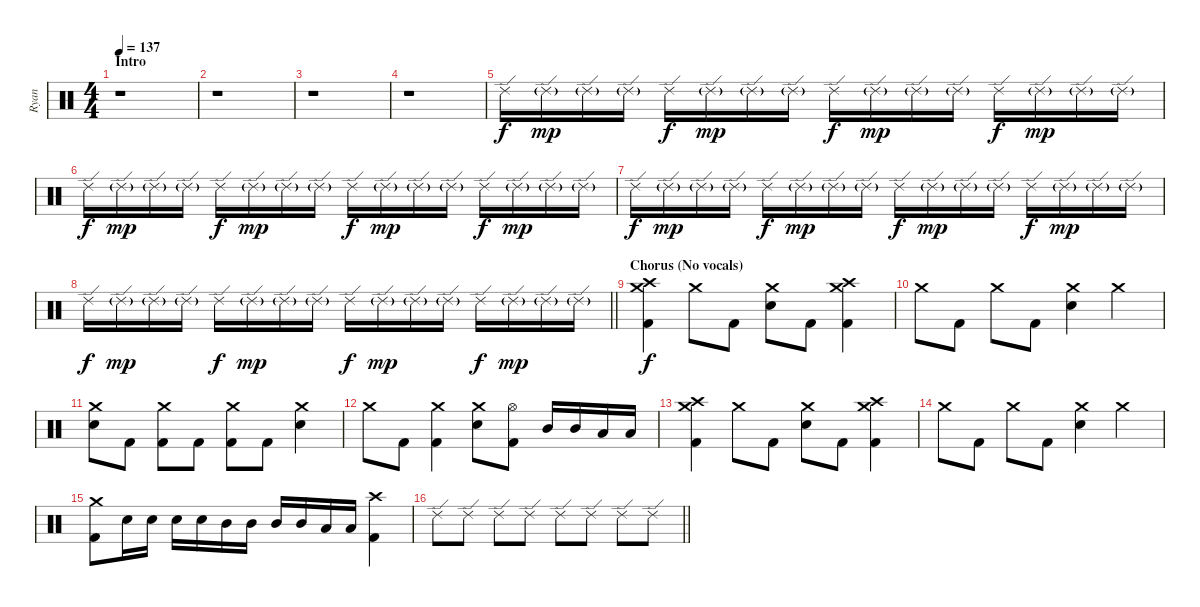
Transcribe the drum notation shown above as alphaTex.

\track ("Ryan" "Ryan") {instrument percussion}
\staff {score}
\articulation defaults
\ts (4 4)
\section ("" "Intro")
\tempo 137
\clef neutral
\ks c
r.1{dy f} |
r.1 |
r.1 |
r.1 |
"Ride (edge) 2".16 "Ride (edge) 2"{g}.16{dy mp} "Ride (edge) 2"{g}.16 "Ride (edge) 2"{g}.16 "Ride (edge) 2".16{dy f} "Ride (edge) 2"{g}.16{dy mp} "Ride (edge) 2"{g}.16 "Ride (edge) 2"{g}.16 "Ride (edge) 2".16{dy f} "Ride (edge) 2"{g}.16{dy mp} "Ride (edge) 2"{g}.16 "Ride (edge) 2"{g}.16 "Ride (edge) 2".16{dy f} "Ride (edge) 2"{g}.16{dy mp} "Ride (edge) 2"{g}.16 "Ride (edge) 2"{g}.16 |
"Ride (edge) 2".16{dy f} "Ride (edge) 2"{g}.16{dy mp} "Ride (edge) 2"{g}.16 "Ride (edge) 2"{g}.16 "Ride (edge) 2".16{dy f} "Ride (edge) 2"{g}.16{dy mp} "Ride (edge) 2"{g}.16 "Ride (edge) 2"{g}.16 "Ride (edge) 2".16{dy f} "Ride (edge) 2"{g}.16{dy mp} "Ride (edge) 2"{g}.16 "Ride (edge) 2"{g}.16 "Ride (edge) 2".16{dy f} "Ride (edge) 2"{g}.16{dy mp} "Ride (edge) 2"{g}.16 "Ride (edge) 2"{g}.16 |
"Ride (edge) 2".16{dy f} "Ride (edge) 2"{g}.16{dy mp} "Ride (edge) 2"{g}.16 "Ride (edge) 2"{g}.16 "Ride (edge) 2".16{dy f} "Ride (edge) 2"{g}.16{dy mp} "Ride (edge) 2"{g}.16 "Ride (edge) 2"{g}.16 "Ride (edge) 2".16{dy f} "Ride (edge) 2"{g}.16{dy mp} "Ride (edge) 2"{g}.16 "Ride (edge) 2"{g}.16 "Ride (edge) 2".16{dy f} "Ride (edge) 2"{g}.16{dy mp} "Ride (edge) 2"{g}.16 "Ride (edge) 2"{g}.16 |
\barLineRight lightlight "Ride (edge) 2".16{dy f} "Ride (edge) 2"{g}.16{dy mp} "Ride (edge) 2"{g}.16 "Ride (edge) 2"{g}.16 "Ride (edge) 2".16{dy f} "Ride (edge) 2"{g}.16{dy mp} "Ride (edge) 2"{g}.16 "Ride (edge) 2"{g}.16 "Ride (edge) 2".16{dy f} "Ride (edge) 2"{g}.16{dy mp} "Ride (edge) 2"{g}.16 "Ride (edge) 2"{g}.16 "Ride (edge) 2".16{dy f} "Ride (edge) 2"{g}.16{dy mp} "Ride (edge) 2"{g}.16 "Ride (edge) 2"{g}.16
|
\section ("" "Chorus (No vocals)")
("Crash medium (hit)" "Crash high (hit)" "Kick (hit) 2").4{dy f} "Crash medium (hit)".8 "Kick (hit) 2".8 ("Crash medium (hit)" "Electric Snare (hit)").8 "Kick (hit) 2".8 ("Crash medium (hit)" "Crash high (hit)" "Kick (hit) 2").4 |
"Crash medium (hit)".8 "Kick (hit) 2".8 "Crash medium (hit)".8 "Kick (hit) 2".8 ("Crash medium (hit)" "Electric Snare (hit)").4 "Crash medium (hit)".4 |
("Crash medium (hit)" "Electric Snare (hit)").8 "Kick (hit) 2".8 ("Crash medium (hit)" "Kick (hit) 2").8 "Kick (hit) 2".8 ("Crash medium (hit)" "Kick (hit) 2").8 "Kick (hit) 2".8 ("Crash medium (hit)" "Electric Snare (hit)").4 |
"Crash medium (hit)".8 "Kick (hit) 2".8 ("Crash medium (hit)" "Kick (hit) 2").4 ("Crash medium (hit)" "Electric Snare (hit)").8 ("Hi-Hat (open)" "Kick (hit) 2").8 "Mid Tom (hit)".16 "Mid Tom (hit)".16 "Low Tom (hit)".16 "Low Tom (hit)".16 |
("Crash medium (hit)" "Crash high (hit)" "Kick (hit) 2").4 "Crash medium (hit)".8 "Kick (hit) 2".8 ("Crash medium (hit)" "Electric Snare (hit)").8 "Kick (hit) 2".8 ("Crash medium (hit)" "Crash high (hit)" "Kick (hit) 2").4 |
"Crash medium (hit)".8 "Kick (hit) 2".8 "Crash medium (hit)".8 "Kick (hit) 2".8 ("Crash medium (hit)" "Electric Snare (hit)").4 "Crash medium (hit)".4 |
("Crash medium (hit)" "Kick (hit) 2").8 "Electric Snare (hit)".16 "Electric Snare (hit)".16 "Electric Snare (hit)".16 "Electric Snare (hit)".16 "Mid Tom (hit)".16 "Mid Tom (hit)".16 "Mid Tom (hit)".16 "Mid Tom (hit)".16 "Low Tom (hit)".16 "Low Tom (hit)".16 ("Crash high (hit)" "Kick (hit) 2").4 |
\barLineRight lightlight "Ride (edge) 2".8 "Ride (edge) 2".8 "Ride (edge) 2".8 "Ride (edge) 2".8 "Ride (edge) 2".8 "Ride (edge) 2".8 "Ride (edge) 2".8 "Ride (edge) 2".8
